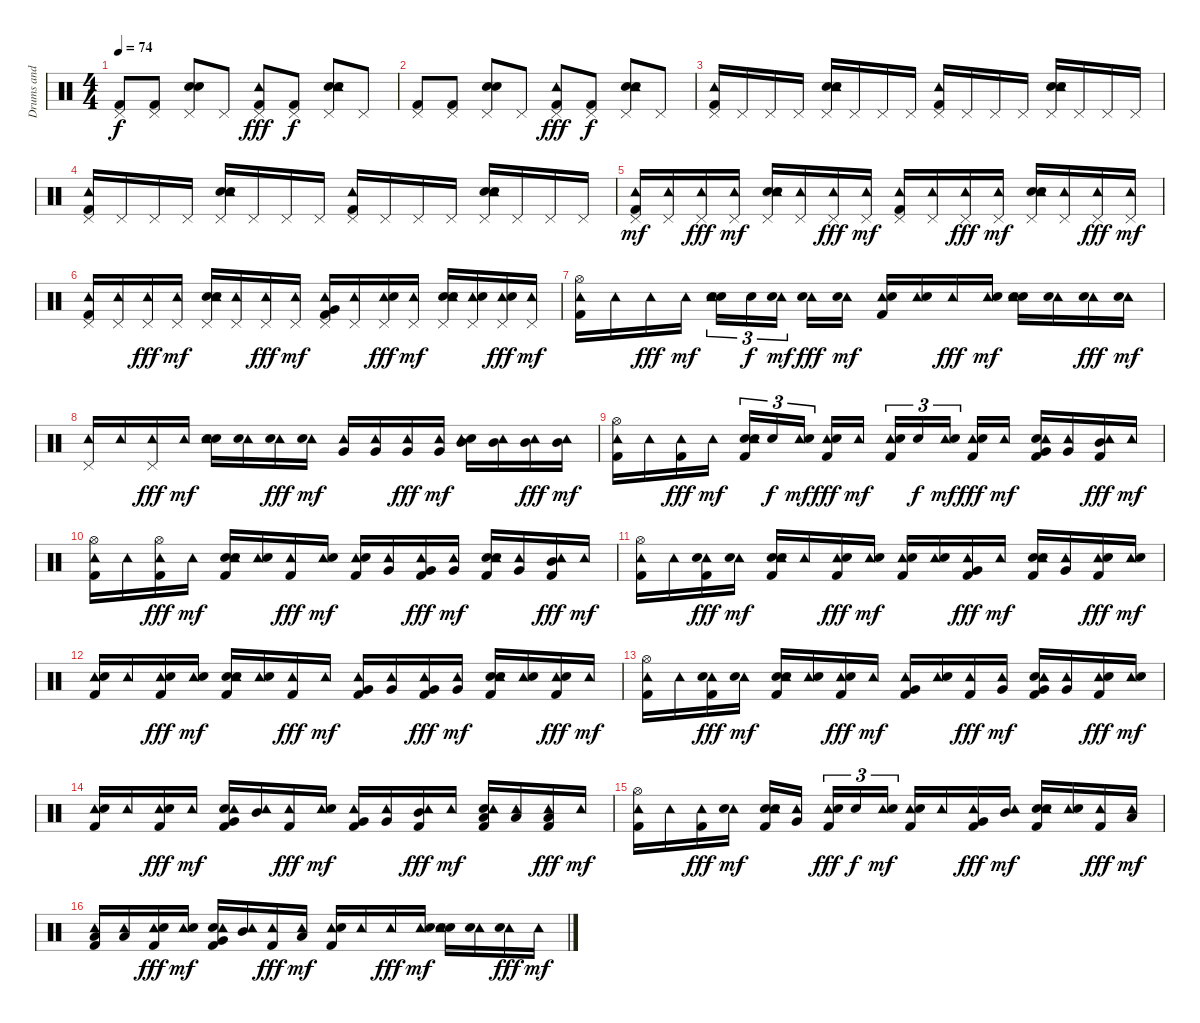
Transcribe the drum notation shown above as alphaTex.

\track ("Drums and Percussion" "Drums and ") {instrument percussion}
\staff {score}
\articulation defaults
\ts (4 4)
\tempo 74
\clef neutral
\ks c
("Pedal Hi-Hat (hit)" "Kick (hit) 2").8{dy f} ("Pedal Hi-Hat (hit)" "Kick (hit) 2").8 ("Hand Clap (hit)" "Pedal Hi-Hat (hit)" "Snare (hit) 2").8 "Pedal Hi-Hat (hit)".8 ("Pedal Hi-Hat (hit)" "Tambourine (hit)" "Kick (hit) 2").8{dy fff} ("Pedal Hi-Hat (hit)" "Kick (hit) 2").8{dy f} ("Hand Clap (hit)" "Pedal Hi-Hat (hit)" "Tambourine (hit)" "Snare (hit) 2").8 "Pedal Hi-Hat (hit)".8 |
("Pedal Hi-Hat (hit)" "Kick (hit) 2").8 ("Pedal Hi-Hat (hit)" "Kick (hit) 2").8 ("Hand Clap (hit)" "Pedal Hi-Hat (hit)" "Snare (hit) 2").8 "Pedal Hi-Hat (hit)".8 ("Pedal Hi-Hat (hit)" "Tambourine (hit)" "Kick (hit) 2").8{dy fff} ("Pedal Hi-Hat (hit)" "Kick (hit) 2").8{dy f} ("Hand Clap (hit)" "Pedal Hi-Hat (hit)" "Tambourine (hit)" "Snare (hit) 2").8 "Pedal Hi-Hat (hit)".8 |
("Pedal Hi-Hat (hit)" "Tambourine (hit)" "Kick (hit) 2").16 "Pedal Hi-Hat (hit)".16 "Pedal Hi-Hat (hit)".16 "Pedal Hi-Hat (hit)".16 ("Hand Clap (hit)" "Pedal Hi-Hat (hit)" "Tambourine (hit)" "Snare (hit) 2").16 "Pedal Hi-Hat (hit)".16 "Pedal Hi-Hat (hit)".16 "Pedal Hi-Hat (hit)".16 ("Pedal Hi-Hat (hit)" "Tambourine (hit)" "Kick (hit) 2").16 "Pedal Hi-Hat (hit)".16 "Pedal Hi-Hat (hit)".16 "Pedal Hi-Hat (hit)".16 ("Hand Clap (hit)" "Pedal Hi-Hat (hit)" "Tambourine (hit)" "Snare (hit) 2").16 "Pedal Hi-Hat (hit)".16 "Pedal Hi-Hat (hit)".16 "Pedal Hi-Hat (hit)".16 |
("Pedal Hi-Hat (hit)" "Tambourine (hit)" "Kick (hit) 2").16 "Pedal Hi-Hat (hit)".16 "Pedal Hi-Hat (hit)".16 "Pedal Hi-Hat (hit)".16 ("Hand Clap (hit)" "Pedal Hi-Hat (hit)" "Tambourine (hit)" "Snare (hit) 2").16 "Pedal Hi-Hat (hit)".16 "Pedal Hi-Hat (hit)".16 "Pedal Hi-Hat (hit)".16 ("Pedal Hi-Hat (hit)" "Tambourine (hit)" "Kick (hit) 2").16 "Pedal Hi-Hat (hit)".16 "Pedal Hi-Hat (hit)".16 "Pedal Hi-Hat (hit)".16 ("Hand Clap (hit)" "Pedal Hi-Hat (hit)" "Tambourine (hit)" "Snare (hit) 2").16 "Pedal Hi-Hat (hit)".16 "Pedal Hi-Hat (hit)".16 "Pedal Hi-Hat (hit)".16 |
("Pedal Hi-Hat (hit)" "Tambourine (hit)" "Kick (hit) 2").16{dy mf} ("Pedal Hi-Hat (hit)" "Tambourine (hit)").16 ("Pedal Hi-Hat (hit)" "Tambourine (hit)").16{dy fff} ("Pedal Hi-Hat (hit)" "Tambourine (hit)").16{dy mf} ("Hand Clap (hit)" "Pedal Hi-Hat (hit)" "Tambourine (hit)" "Snare (hit) 2").16 ("Pedal Hi-Hat (hit)" "Tambourine (hit)").16 ("Pedal Hi-Hat (hit)" "Tambourine (hit)").16{dy fff} ("Pedal Hi-Hat (hit)" "Tambourine (hit)").16{dy mf} ("Pedal Hi-Hat (hit)" "Tambourine (hit)" "Kick (hit) 2").16 ("Pedal Hi-Hat (hit)" "Tambourine (hit)").16 ("Pedal Hi-Hat (hit)" "Tambourine (hit)").16{dy fff} ("Pedal Hi-Hat (hit)" "Tambourine (hit)").16{dy mf} ("Hand Clap (hit)" "Pedal Hi-Hat (hit)" "Tambourine (hit)" "Snare (hit) 2").16 ("Pedal Hi-Hat (hit)" "Tambourine (hit)").16 ("Pedal Hi-Hat (hit)" "Tambourine (hit)").16{dy fff} ("Pedal Hi-Hat (hit)" "Tambourine (hit)").16{dy mf} |
("Pedal Hi-Hat (hit)" "Tambourine (hit)" "Kick (hit) 2").16 ("Pedal Hi-Hat (hit)" "Tambourine (hit)").16 ("Pedal Hi-Hat (hit)" "Tambourine (hit)").16{dy fff} ("Pedal Hi-Hat (hit)" "Tambourine (hit)").16{dy mf} ("Hand Clap (hit)" "Pedal Hi-Hat (hit)" "Tambourine (hit)" "Snare (hit) 2").16 ("Pedal Hi-Hat (hit)" "Tambourine (hit)").16 ("Pedal Hi-Hat (hit)" "Tambourine (hit)").16{dy fff} ("Pedal Hi-Hat (hit)" "Tambourine (hit)").16{dy mf} ("Pedal Hi-Hat (hit)" "Tambourine (hit)" "Very Low Tom (hit)" "Kick (hit) 2").16 ("Pedal Hi-Hat (hit)" "Tambourine (hit)").16 ("Pedal Hi-Hat (hit)" "Tambourine (hit)" "Snare (hit) 2").16{dy fff} ("Pedal Hi-Hat (hit)" "Tambourine (hit)").16{dy mf} ("Hand Clap (hit)" "Pedal Hi-Hat (hit)" "Tambourine (hit)" "Snare (hit) 2").16 ("Pedal Hi-Hat (hit)" "Tambourine (hit)" "Snare (hit) 2").16 ("Pedal Hi-Hat (hit)" "Tambourine (hit)" "Snare (hit) 2").16{dy fff} ("Pedal Hi-Hat (hit)" "Tambourine (hit)").16{dy mf} |
("Hi-Hat (open)" "Tambourine (hit)" "Kick (hit) 2").16{volume 10} "Tambourine (hit)".16 "Tambourine (hit)".16{dy fff} "Tambourine (hit)".16{dy mf} ("Hand Clap (hit)" "Tambourine (hit)" "Snare (hit) 2").16{tu (3 2)} "Snare (hit) 2".16{tu (3 2) dy f} ("Tambourine (hit)" "Snare (hit) 2").16{tu (3 2) dy mf} ("Tambourine (hit)" "Snare (hit) 2").16{dy fff} ("Tambourine (hit)" "Snare (hit) 2").16{dy mf} ("Tambourine (hit)" "Snare (hit) 2" "Kick (hit) 2").16 ("Tambourine (hit)" "Snare (hit) 2").16 "Tambourine (hit)".16{dy fff} ("Tambourine (hit)" "Snare (hit) 2").16{dy mf} ("Hand Clap (hit)" "Tambourine (hit)" "Snare (hit) 2").16 ("Tambourine (hit)" "Snare (hit) 2").16 ("Tambourine (hit)" "Snare (hit) 2").16{dy fff} ("Tambourine (hit)" "Snare (hit) 2").16{dy mf} |
("Pedal Hi-Hat (hit)" "Tambourine (hit)").16 "Tambourine (hit)".16 ("Pedal Hi-Hat (hit)" "Tambourine (hit)").16{dy fff} "Tambourine (hit)".16{dy mf} ("Hand Clap (hit)" "Tambourine (hit)" "Snare (hit) 2").16 ("Tambourine (hit)" "Snare (hit) 2").16 ("Tambourine (hit)" "Snare (hit) 2").16{dy fff} ("Tambourine (hit)" "Snare (hit) 2").16{dy mf} ("Tambourine (hit)" "Very Low Tom (hit)").16 ("Tambourine (hit)" "Very Low Tom (hit)").16 ("Tambourine (hit)" "Very Low Tom (hit)").16{dy fff} ("Tambourine (hit)" "Very Low Tom (hit)").16{dy mf} ("Hand Clap (hit)" "Tambourine (hit)" "Mid Tom (hit)").16 ("Tambourine (hit)" "Mid Tom (hit)").16 ("Tambourine (hit)" "Mid Tom (hit)").16{dy fff} ("Tambourine (hit)" "Mid Tom (hit)").16{dy mf} |
("Hi-Hat (open)" "Tambourine (hit)" "Kick (hit) 2").16 "Tambourine (hit)".16 ("Tambourine (hit)" "Kick (hit) 2").16{dy fff} "Tambourine (hit)".16{dy mf} ("Hand Clap (hit)" "Tambourine (hit)" "Snare (hit) 2" "Kick (hit) 2").16{tu (3 2)} "Snare (hit) 2".16{tu (3 2) dy f} ("Tambourine (hit)" "Snare (hit) 2").16{tu (3 2) dy mf} ("Tambourine (hit)" "Snare (hit) 2" "Kick (hit) 2").16{dy fff} "Tambourine (hit)".16{dy mf} ("Tambourine (hit)" "Snare (hit) 2" "Kick (hit) 2").16{tu (3 2)} "Snare (hit) 2".16{tu (3 2) dy f} ("Tambourine (hit)" "Snare (hit) 2").16{tu (3 2) dy mf} ("Tambourine (hit)" "Snare (hit) 2" "Kick (hit) 2").16{dy fff} "Tambourine (hit)".16{dy mf} ("Hand Clap (hit)" "Tambourine (hit)" "Very Low Tom (hit)" "Kick (hit) 2").16 ("Tambourine (hit)" "Very Low Tom (hit)").16 ("Tambourine (hit)" "Kick (hit) 2" "Mid Tom (hit)").16{dy fff} "Tambourine (hit)".16{dy mf} |
("Hi-Hat (open)" "Tambourine (hit)" "Kick (hit) 2").16 "Tambourine (hit)".16 ("Hi-Hat (open)" "Tambourine (hit)" "Kick (hit) 2").16{dy fff} "Tambourine (hit)".16{dy mf} ("Hand Clap (hit)" "Tambourine (hit)" "Snare (hit) 2" "Kick (hit) 2").16 ("Tambourine (hit)" "Snare (hit) 2").16 ("Tambourine (hit)" "Kick (hit) 2").16{dy fff} ("Tambourine (hit)" "Snare (hit) 2").16{dy mf} ("Tambourine (hit)" "Snare (hit) 2" "Kick (hit) 2").16 ("Tambourine (hit)" "Very Low Tom (hit)").16 ("Tambourine (hit)" "Very Low Tom (hit)" "Kick (hit) 2").16{dy fff} ("Tambourine (hit)" "Very Low Tom (hit)").16{dy mf} ("Hand Clap (hit)" "Tambourine (hit)" "Snare (hit) 2" "Kick (hit) 2").16 ("Tambourine (hit)" "Very Low Tom (hit)").16 ("Tambourine (hit)" "Kick (hit) 2" "Mid Tom (hit)").16{dy fff} "Tambourine (hit)".16{dy mf} |
("Hi-Hat (open)" "Tambourine (hit)" "Kick (hit) 2").16 "Tambourine (hit)".16 ("Tambourine (hit)" "Snare (hit) 2" "Kick (hit) 2").16{dy fff} ("Tambourine (hit)" "Snare (hit) 2").16{dy mf} ("Hand Clap (hit)" "Tambourine (hit)" "Snare (hit) 2" "Kick (hit) 2").16 "Tambourine (hit)".16 ("Tambourine (hit)" "Snare (hit) 2" "Kick (hit) 2").16{dy fff} ("Tambourine (hit)" "Snare (hit) 2").16{dy mf} ("Tambourine (hit)" "Snare (hit) 2" "Kick (hit) 2").16 ("Tambourine (hit)" "Snare (hit) 2").16 ("Tambourine (hit)" "Very Low Tom (hit)" "Kick (hit) 2").16{dy fff} "Tambourine (hit)".16{dy mf} ("Hand Clap (hit)" "Tambourine (hit)" "Snare (hit) 2" "Kick (hit) 2").16 ("Tambourine (hit)" "Very Low Tom (hit)").16 ("Tambourine (hit)" "Snare (hit) 2" "Kick (hit) 2").16{dy fff} ("Tambourine (hit)" "Snare (hit) 2").16{dy mf} |
("Tambourine (hit)" "Snare (hit) 2" "Kick (hit) 2").16 "Tambourine (hit)".16 ("Tambourine (hit)" "Snare (hit) 2" "Kick (hit) 2").16{dy fff} ("Tambourine (hit)" "Snare (hit) 2").16{dy mf} ("Hand Clap (hit)" "Tambourine (hit)" "Snare (hit) 2" "Kick (hit) 2").16 ("Tambourine (hit)" "Snare (hit) 2").16 ("Tambourine (hit)" "Kick (hit) 2").16{dy fff} "Tambourine (hit)".16{dy mf} ("Tambourine (hit)" "Very Low Tom (hit)" "Kick (hit) 2").16 ("Tambourine (hit)" "Very Low Tom (hit)").16 ("Tambourine (hit)" "Very Low Tom (hit)" "Kick (hit) 2").16{dy fff} ("Tambourine (hit)" "Very Low Tom (hit)").16{dy mf} ("Hand Clap (hit)" "Tambourine (hit)" "Snare (hit) 2" "Kick (hit) 2").16 ("Tambourine (hit)" "Snare (hit) 2").16 ("Tambourine (hit)" "Snare (hit) 2" "Kick (hit) 2").16{dy fff} "Tambourine (hit)".16{dy mf} |
("Hi-Hat (open)" "Tambourine (hit)" "Kick (hit) 2").16 "Tambourine (hit)".16 ("Tambourine (hit)" "Snare (hit) 2" "Kick (hit) 2").16{dy fff} ("Tambourine (hit)" "Snare (hit) 2").16{dy mf} ("Hand Clap (hit)" "Tambourine (hit)" "Snare (hit) 2" "Kick (hit) 2").16 ("Tambourine (hit)" "Snare (hit) 2").16 ("Tambourine (hit)" "Snare (hit) 2" "Kick (hit) 2").16{dy fff} "Tambourine (hit)".16{dy mf} ("Tambourine (hit)" "Very Low Tom (hit)" "Kick (hit) 2").16 ("Tambourine (hit)" "Snare (hit) 2").16 ("Tambourine (hit)" "Kick (hit) 2").16{dy fff} ("Tambourine (hit)" "Very Low Tom (hit)").16{dy mf} ("Hand Clap (hit)" "Tambourine (hit)" "Very Low Tom (hit)" "Kick (hit) 2").16 ("Tambourine (hit)" "Very Low Tom (hit)").16 ("Tambourine (hit)" "Snare (hit) 2" "Kick (hit) 2").16{dy fff} ("Tambourine (hit)" "Snare (hit) 2").16{dy mf} |
("Tambourine (hit)" "Snare (hit) 2" "Kick (hit) 2").16 "Tambourine (hit)".16 ("Tambourine (hit)" "Snare (hit) 2" "Kick (hit) 2").16{dy fff} "Tambourine (hit)".16{dy mf} ("Hand Clap (hit)" "Tambourine (hit)" "Very Low Tom (hit)" "Kick (hit) 2").16 ("Tambourine (hit)" "Mid Tom (hit)").16 ("Tambourine (hit)" "Kick (hit) 2").16{dy fff} ("Tambourine (hit)" "Snare (hit) 2").16{dy mf} ("Tambourine (hit)" "Very Low Tom (hit)" "Kick (hit) 2").16 ("Tambourine (hit)" "Very Low Tom (hit)").16 ("Tambourine (hit)" "Kick (hit) 2" "Mid Tom (hit)").16{dy fff} "Tambourine (hit)".16{dy mf} ("Hand Clap (hit)" "Tambourine (hit)" "Kick (hit) 2" "Low Tom (hit)").16 ("Tambourine (hit)" "Low Tom (hit)").16 ("Tambourine (hit)" "Kick (hit) 2" "Low Tom (hit)").16{dy fff} "Tambourine (hit)".16{dy mf} |
("Hi-Hat (open)" "Tambourine (hit)" "Kick (hit) 2").16 "Tambourine (hit)".16 ("Tambourine (hit)" "Kick (hit) 2").16{dy fff} ("Tambourine (hit)" "Snare (hit) 2").16{dy mf} ("Hand Clap (hit)" "Tambourine (hit)" "Snare (hit) 2" "Kick (hit) 2").16 ("Tambourine (hit)" "Very Low Tom (hit)").16 ("Tambourine (hit)" "Snare (hit) 2" "Kick (hit) 2").16{tu (3 2) dy fff} "Snare (hit) 2".16{tu (3 2) dy f} ("Tambourine (hit)" "Snare (hit) 2").16{tu (3 2) dy mf} ("Tambourine (hit)" "Snare (hit) 2" "Kick (hit) 2").16 "Tambourine (hit)".16 ("Tambourine (hit)" "Very Low Tom (hit)" "Kick (hit) 2").16{dy fff} ("Tambourine (hit)" "Mid Tom (hit)").16{dy mf} ("Hand Clap (hit)" "Tambourine (hit)" "Snare (hit) 2" "Kick (hit) 2").16 ("Tambourine (hit)" "Snare (hit) 2").16 ("Tambourine (hit)" "Kick (hit) 2").16{dy fff} ("Tambourine (hit)" "Low Tom (hit)").16{dy mf} |
("Tambourine (hit)" "Kick (hit) 2" "Low Tom (hit)").16 ("Tambourine (hit)" "Low Tom (hit)").16 ("Tambourine (hit)" "Snare (hit) 2" "Kick (hit) 2").16{dy fff} ("Tambourine (hit)" "Snare (hit) 2").16{dy mf} ("Hand Clap (hit)" "Tambourine (hit)" "Very Low Tom (hit)" "Kick (hit) 2").16 ("Tambourine (hit)" "Mid Tom (hit)").16 ("Tambourine (hit)" "Kick (hit) 2").16{dy fff} ("Tambourine (hit)" "Low Tom (hit)").16{dy mf} ("Tambourine (hit)" "Snare (hit) 2" "Kick (hit) 2").16 "Tambourine (hit)".16 "Tambourine (hit)".16{dy fff} ("Tambourine (hit)" "Snare (hit) 2").16{dy mf} ("Hand Clap (hit)" "Tambourine (hit)" "Snare (hit) 2").16 ("Tambourine (hit)" "Snare (hit) 2").16 ("Tambourine (hit)" "Snare (hit) 2").16{dy fff} "Tambourine (hit)".16{dy mf}
